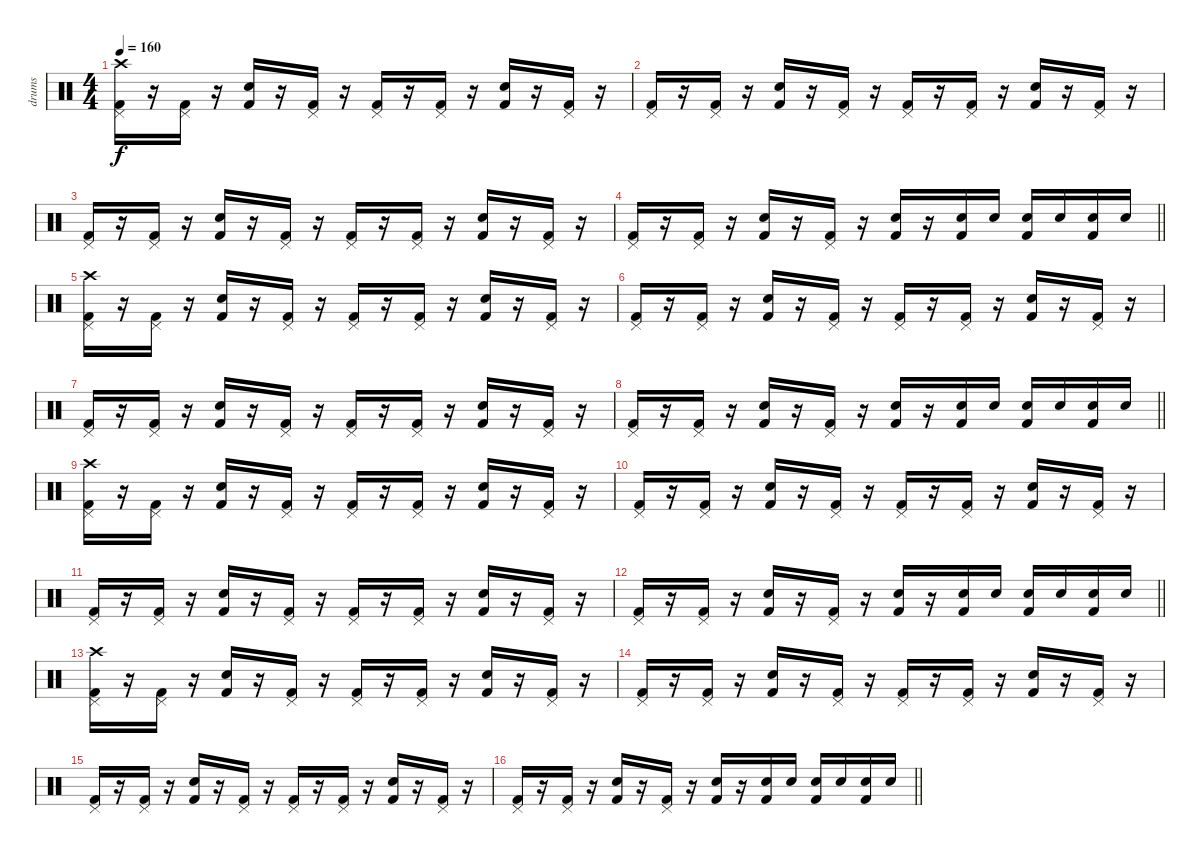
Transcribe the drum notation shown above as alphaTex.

\track ("drums" "drums") {instrument percussion}
\staff {score}
\articulation defaults
\ts (4 4)
\tempo 160
\clef neutral
\ks c
("Crash high (hit)" "Pedal Hi-Hat (hit)" "Kick (hit) 2").16{dy f} r.16 ("Pedal Hi-Hat (hit)" "Kick (hit) 2").16 r.16 ("Snare (hit) 2" "Kick (hit) 2").16 r.16 ("Pedal Hi-Hat (hit)" "Kick (hit) 2").16 r.16 ("Pedal Hi-Hat (hit)" "Kick (hit) 2").16 r.16 ("Pedal Hi-Hat (hit)" "Kick (hit) 2").16 r.16 ("Snare (hit) 2" "Kick (hit) 2").16 r.16 ("Pedal Hi-Hat (hit)" "Kick (hit) 2").16 r.16 |
("Pedal Hi-Hat (hit)" "Kick (hit) 2").16 r.16 ("Pedal Hi-Hat (hit)" "Kick (hit) 2").16 r.16 ("Snare (hit) 2" "Kick (hit) 2").16 r.16 ("Pedal Hi-Hat (hit)" "Kick (hit) 2").16 r.16 ("Pedal Hi-Hat (hit)" "Kick (hit) 2").16 r.16 ("Pedal Hi-Hat (hit)" "Kick (hit) 2").16 r.16 ("Snare (hit) 2" "Kick (hit) 2").16 r.16 ("Pedal Hi-Hat (hit)" "Kick (hit) 2").16 r.16 |
("Pedal Hi-Hat (hit)" "Kick (hit) 2").16 r.16 ("Pedal Hi-Hat (hit)" "Kick (hit) 2").16 r.16 ("Snare (hit) 2" "Kick (hit) 2").16 r.16 ("Pedal Hi-Hat (hit)" "Kick (hit) 2").16 r.16 ("Pedal Hi-Hat (hit)" "Kick (hit) 2").16 r.16 ("Pedal Hi-Hat (hit)" "Kick (hit) 2").16 r.16 ("Snare (hit) 2" "Kick (hit) 2").16 r.16 ("Pedal Hi-Hat (hit)" "Kick (hit) 2").16 r.16 |
\barLineRight lightlight
("Pedal Hi-Hat (hit)" "Kick (hit) 2").16 r.16 ("Pedal Hi-Hat (hit)" "Kick (hit) 2").16 r.16 ("Snare (hit) 2" "Kick (hit) 2").16 r.16 ("Pedal Hi-Hat (hit)" "Kick (hit) 2").16 r.16 ("Electric Snare (hit)" "Kick (hit) 2").16 r.16 ("Electric Snare (hit)" "Kick (hit) 2").16 "Electric Snare (hit)".16 ("Snare (hit) 2" "Kick (hit) 2").16 "Electric Snare (hit)".16 ("Electric Snare (hit)" "Kick (hit) 2").16 "Electric Snare (hit)".16 |
("Crash high (hit)" "Pedal Hi-Hat (hit)" "Kick (hit) 2").16 r.16 ("Pedal Hi-Hat (hit)" "Kick (hit) 2").16 r.16 ("Snare (hit) 2" "Kick (hit) 2").16 r.16 ("Pedal Hi-Hat (hit)" "Kick (hit) 2").16 r.16 ("Pedal Hi-Hat (hit)" "Kick (hit) 2").16 r.16 ("Pedal Hi-Hat (hit)" "Kick (hit) 2").16 r.16 ("Snare (hit) 2" "Kick (hit) 2").16 r.16 ("Pedal Hi-Hat (hit)" "Kick (hit) 2").16 r.16 |
("Pedal Hi-Hat (hit)" "Kick (hit) 2").16 r.16 ("Pedal Hi-Hat (hit)" "Kick (hit) 2").16 r.16 ("Snare (hit) 2" "Kick (hit) 2").16 r.16 ("Pedal Hi-Hat (hit)" "Kick (hit) 2").16 r.16 ("Pedal Hi-Hat (hit)" "Kick (hit) 2").16 r.16 ("Pedal Hi-Hat (hit)" "Kick (hit) 2").16 r.16 ("Snare (hit) 2" "Kick (hit) 2").16 r.16 ("Pedal Hi-Hat (hit)" "Kick (hit) 2").16 r.16 |
("Pedal Hi-Hat (hit)" "Kick (hit) 2").16 r.16 ("Pedal Hi-Hat (hit)" "Kick (hit) 2").16 r.16 ("Snare (hit) 2" "Kick (hit) 2").16 r.16 ("Pedal Hi-Hat (hit)" "Kick (hit) 2").16 r.16 ("Pedal Hi-Hat (hit)" "Kick (hit) 2").16 r.16 ("Pedal Hi-Hat (hit)" "Kick (hit) 2").16 r.16 ("Snare (hit) 2" "Kick (hit) 2").16 r.16 ("Pedal Hi-Hat (hit)" "Kick (hit) 2").16 r.16 |
\barLineRight lightlight
("Pedal Hi-Hat (hit)" "Kick (hit) 2").16 r.16 ("Pedal Hi-Hat (hit)" "Kick (hit) 2").16 r.16 ("Snare (hit) 2" "Kick (hit) 2").16 r.16 ("Pedal Hi-Hat (hit)" "Kick (hit) 2").16 r.16 ("Electric Snare (hit)" "Kick (hit) 2").16 r.16 ("Electric Snare (hit)" "Kick (hit) 2").16 "Electric Snare (hit)".16 ("Snare (hit) 2" "Kick (hit) 2").16 "Electric Snare (hit)".16 ("Electric Snare (hit)" "Kick (hit) 2").16 "Electric Snare (hit)".16 |
("Crash high (hit)" "Pedal Hi-Hat (hit)" "Kick (hit) 2").16 r.16 ("Pedal Hi-Hat (hit)" "Kick (hit) 2").16 r.16 ("Snare (hit) 2" "Kick (hit) 2").16 r.16 ("Pedal Hi-Hat (hit)" "Kick (hit) 2").16 r.16 ("Pedal Hi-Hat (hit)" "Kick (hit) 2").16 r.16 ("Pedal Hi-Hat (hit)" "Kick (hit) 2").16 r.16 ("Snare (hit) 2" "Kick (hit) 2").16 r.16 ("Pedal Hi-Hat (hit)" "Kick (hit) 2").16 r.16 |
("Pedal Hi-Hat (hit)" "Kick (hit) 2").16 r.16 ("Pedal Hi-Hat (hit)" "Kick (hit) 2").16 r.16 ("Snare (hit) 2" "Kick (hit) 2").16 r.16 ("Pedal Hi-Hat (hit)" "Kick (hit) 2").16 r.16 ("Pedal Hi-Hat (hit)" "Kick (hit) 2").16 r.16 ("Pedal Hi-Hat (hit)" "Kick (hit) 2").16 r.16 ("Snare (hit) 2" "Kick (hit) 2").16 r.16 ("Pedal Hi-Hat (hit)" "Kick (hit) 2").16 r.16 |
("Pedal Hi-Hat (hit)" "Kick (hit) 2").16 r.16 ("Pedal Hi-Hat (hit)" "Kick (hit) 2").16 r.16 ("Snare (hit) 2" "Kick (hit) 2").16 r.16 ("Pedal Hi-Hat (hit)" "Kick (hit) 2").16 r.16 ("Pedal Hi-Hat (hit)" "Kick (hit) 2").16 r.16 ("Pedal Hi-Hat (hit)" "Kick (hit) 2").16 r.16 ("Snare (hit) 2" "Kick (hit) 2").16 r.16 ("Pedal Hi-Hat (hit)" "Kick (hit) 2").16 r.16 |
\barLineRight lightlight
("Pedal Hi-Hat (hit)" "Kick (hit) 2").16 r.16 ("Pedal Hi-Hat (hit)" "Kick (hit) 2").16 r.16 ("Snare (hit) 2" "Kick (hit) 2").16 r.16 ("Pedal Hi-Hat (hit)" "Kick (hit) 2").16 r.16 ("Electric Snare (hit)" "Kick (hit) 2").16 r.16 ("Electric Snare (hit)" "Kick (hit) 2").16 "Electric Snare (hit)".16 ("Snare (hit) 2" "Kick (hit) 2").16 "Electric Snare (hit)".16 ("Electric Snare (hit)" "Kick (hit) 2").16 "Electric Snare (hit)".16 |
("Crash high (hit)" "Pedal Hi-Hat (hit)" "Kick (hit) 2").16 r.16 ("Pedal Hi-Hat (hit)" "Kick (hit) 2").16 r.16 ("Snare (hit) 2" "Kick (hit) 2").16 r.16 ("Pedal Hi-Hat (hit)" "Kick (hit) 2").16 r.16 ("Pedal Hi-Hat (hit)" "Kick (hit) 2").16 r.16 ("Pedal Hi-Hat (hit)" "Kick (hit) 2").16 r.16 ("Snare (hit) 2" "Kick (hit) 2").16 r.16 ("Pedal Hi-Hat (hit)" "Kick (hit) 2").16 r.16 |
("Pedal Hi-Hat (hit)" "Kick (hit) 2").16 r.16 ("Pedal Hi-Hat (hit)" "Kick (hit) 2").16 r.16 ("Snare (hit) 2" "Kick (hit) 2").16 r.16 ("Pedal Hi-Hat (hit)" "Kick (hit) 2").16 r.16 ("Pedal Hi-Hat (hit)" "Kick (hit) 2").16 r.16 ("Pedal Hi-Hat (hit)" "Kick (hit) 2").16 r.16 ("Snare (hit) 2" "Kick (hit) 2").16 r.16 ("Pedal Hi-Hat (hit)" "Kick (hit) 2").16 r.16 |
("Pedal Hi-Hat (hit)" "Kick (hit) 2").16 r.16 ("Pedal Hi-Hat (hit)" "Kick (hit) 2").16 r.16 ("Snare (hit) 2" "Kick (hit) 2").16 r.16 ("Pedal Hi-Hat (hit)" "Kick (hit) 2").16 r.16 ("Pedal Hi-Hat (hit)" "Kick (hit) 2").16 r.16 ("Pedal Hi-Hat (hit)" "Kick (hit) 2").16 r.16 ("Snare (hit) 2" "Kick (hit) 2").16 r.16 ("Pedal Hi-Hat (hit)" "Kick (hit) 2").16 r.16 |
\barLineRight lightlight
("Pedal Hi-Hat (hit)" "Kick (hit) 2").16 r.16 ("Pedal Hi-Hat (hit)" "Kick (hit) 2").16 r.16 ("Snare (hit) 2" "Kick (hit) 2").16 r.16 ("Pedal Hi-Hat (hit)" "Kick (hit) 2").16 r.16 ("Electric Snare (hit)" "Kick (hit) 2").16 r.16 ("Electric Snare (hit)" "Kick (hit) 2").16 "Electric Snare (hit)".16 ("Snare (hit) 2" "Kick (hit) 2").16 "Electric Snare (hit)".16 ("Electric Snare (hit)" "Kick (hit) 2").16 "Electric Snare (hit)".16
